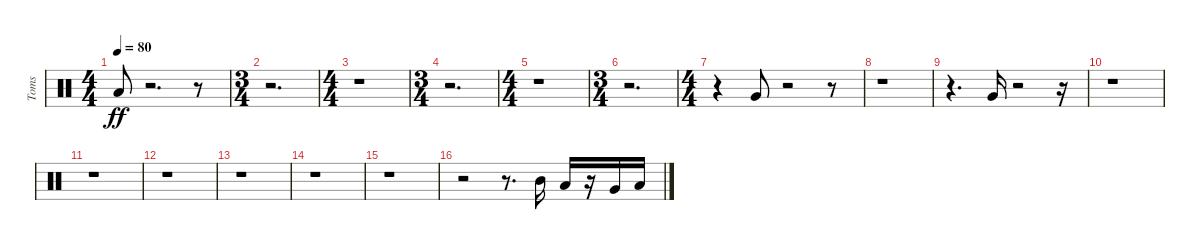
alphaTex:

\track ("Toms" "Toms") {instrument percussion}
\staff {score}
\articulation defaults
\ts (4 4)
\tempo 80
\clef neutral
\ks c "Low Floor Tom (hit)".8{dy ff}
r.2{d} r.8 |
\ts (3 4)
r.2{d} |
\ts (4 4)
r.1 |
\ts (3 4)
r.2{d} |
\ts (4 4)
r.1 |
\ts (3 4)
r.2{d} |
\ts (4 4)
r.4 "Very Low Tom (hit)".8 r.2 r.8 |
r.1 |
r.4{d} "Very Low Tom (hit)".16 r.2 r.16 |
r.1 |
r.1 |
r.1 |
r.1 |
r.1 |
r.1 |
r.2 r.8{d} "Mid Tom (hit)".16 "Low Tom (hit)".16 r.16 "Very Low Tom (hit)".16 "Low Floor Tom (hit)".16
